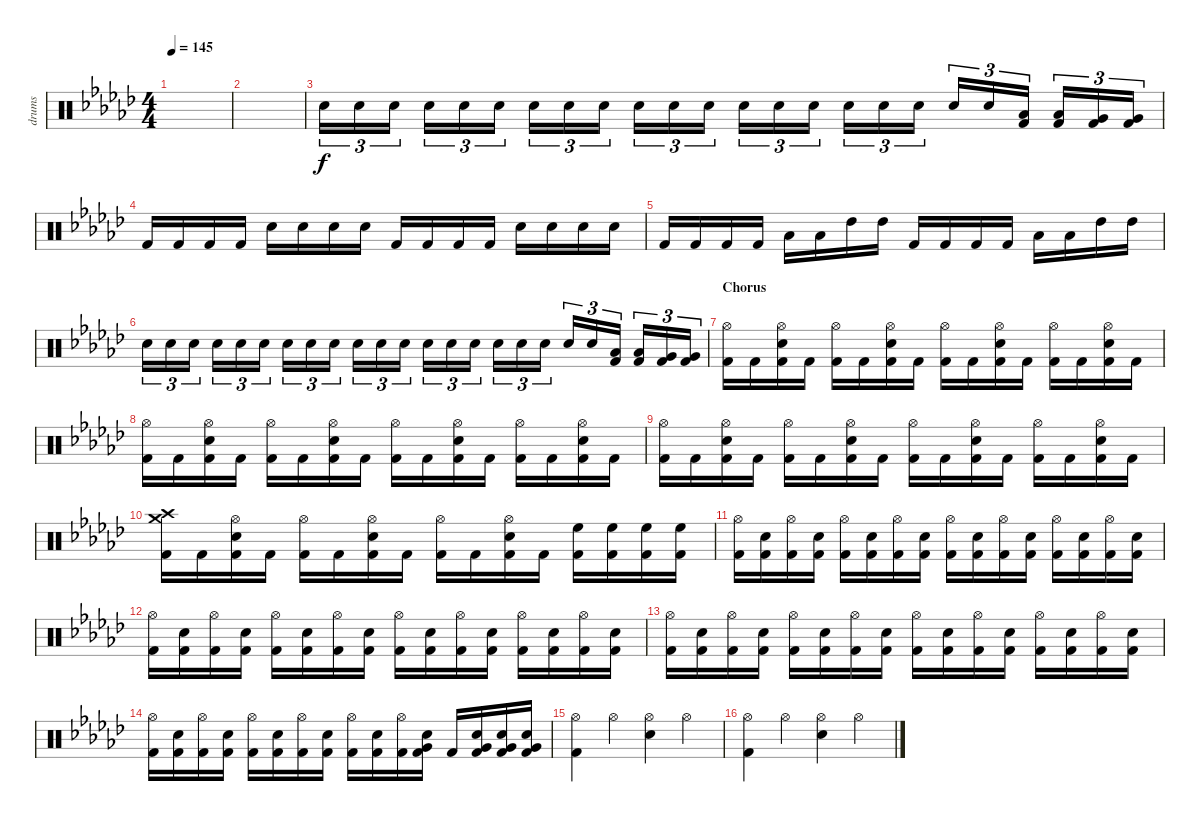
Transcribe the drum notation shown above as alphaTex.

\track ("drums" "drums") {instrument percussion}
\staff {score}
\articulation defaults
\ts (4 4)
\tempo 145
\clef neutral
\ks gb
|
|
"Snare (hit) 2".16{tu (3 2) volume 4} "Snare (hit) 2".16{tu (3 2)} "Snare (hit) 2".16{tu (3 2) volume 6} "Snare (hit) 2".16{tu (3 2)} "Snare (hit) 2".16{tu (3 2) volume 8} "Snare (hit) 2".16{tu (3 2)} "Snare (hit) 2".16{tu (3 2) volume 9} "Snare (hit) 2".16{tu (3 2)} "Snare (hit) 2".16{tu (3 2) volume 10} "Snare (hit) 2".16{tu (3 2)} "Snare (hit) 2".16{tu (3 2) volume 11} "Snare (hit) 2".16{tu (3 2)} "Snare (hit) 2".16{tu (3 2) volume 12} "Snare (hit) 2".16{tu (3 2)} "Snare (hit) 2".16{tu (3 2) volume 13} "Snare (hit) 2".16{tu (3 2)} "Snare (hit) 2".16{tu (3 2) volume 14} "Snare (hit) 2".16{tu (3 2)} "Snare (hit) 2".16{tu (3 2) volume 15} "Snare (hit) 2".16{tu (3 2)} ("Low Tom (hit)" "Kick (hit) 2").16{tu (3 2)} ("Low Tom (hit)" "Kick (hit) 2").16{tu (3 2)} ("Very Low Tom (hit)" "Kick (hit) 2").16{tu (3 2)} ("Very Low Tom (hit)" "Kick (hit) 2").16{tu (3 2)} |
"Kick (hit) 2".16 "Kick (hit) 2".16 "Kick (hit) 2".16 "Kick (hit) 2".16 "Snare (hit) 2".16 "Snare (hit) 2".16 "Snare (hit) 2".16 "Snare (hit) 2".16 "Kick (hit) 2".16 "Kick (hit) 2".16 "Kick (hit) 2".16 "Kick (hit) 2".16 "Snare (hit) 2".16 "Snare (hit) 2".16 "Snare (hit) 2".16 "Snare (hit) 2".16 |
"Kick (hit) 2".16 "Kick (hit) 2".16 "Kick (hit) 2".16 "Kick (hit) 2".16 "Low Tom (hit)".16 "Low Tom (hit)".16 "High Tom (hit)".16 "High Tom (hit)".16 "Kick (hit) 2".16 "Kick (hit) 2".16 "Kick (hit) 2".16 "Kick (hit) 2".16 "Low Tom (hit)".16 "Low Tom (hit)".16 "High Tom (hit)".16 "High Tom (hit)".16 |
"Snare (hit) 2".16{tu (3 2) volume 4} "Snare (hit) 2".16{tu (3 2)} "Snare (hit) 2".16{tu (3 2) volume 6} "Snare (hit) 2".16{tu (3 2)} "Snare (hit) 2".16{tu (3 2) volume 8} "Snare (hit) 2".16{tu (3 2)} "Snare (hit) 2".16{tu (3 2) volume 9} "Snare (hit) 2".16{tu (3 2)} "Snare (hit) 2".16{tu (3 2) volume 10} "Snare (hit) 2".16{tu (3 2)} "Snare (hit) 2".16{tu (3 2) volume 11} "Snare (hit) 2".16{tu (3 2)} "Snare (hit) 2".16{tu (3 2) volume 12} "Snare (hit) 2".16{tu (3 2)} "Snare (hit) 2".16{tu (3 2) volume 13} "Snare (hit) 2".16{tu (3 2)} "Snare (hit) 2".16{tu (3 2) volume 14} "Snare (hit) 2".16{tu (3 2)} "Snare (hit) 2".16{tu (3 2) volume 15} "Snare (hit) 2".16{tu (3 2)} ("Low Tom (hit)" "Kick (hit) 2").16{tu (3 2)} ("Low Tom (hit)" "Kick (hit) 2").16{tu (3 2)} ("Very Low Tom (hit)" "Kick (hit) 2").16{tu (3 2)} ("Very Low Tom (hit)" "Kick (hit) 2").16{tu (3 2)} |
\section ("" "Chorus")
("Hi-Hat (open)" "Kick (hit) 2").16 "Kick (hit) 2".16 ("Hi-Hat (open)" "Electric Snare (hit)" "Kick (hit) 2").16 "Kick (hit) 2".16 ("Hi-Hat (open)" "Kick (hit) 2").16 "Kick (hit) 2".16 ("Hi-Hat (open)" "Electric Snare (hit)" "Kick (hit) 2").16 "Kick (hit) 2".16 ("Hi-Hat (open)" "Kick (hit) 2").16 "Kick (hit) 2".16 ("Hi-Hat (open)" "Electric Snare (hit)" "Kick (hit) 2").16 "Kick (hit) 2".16 ("Hi-Hat (open)" "Kick (hit) 2").16 "Kick (hit) 2".16 ("Hi-Hat (open)" "Electric Snare (hit)" "Kick (hit) 2").16 "Kick (hit) 2".16 |
("Hi-Hat (open)" "Kick (hit) 2").16 "Kick (hit) 2".16 ("Hi-Hat (open)" "Electric Snare (hit)" "Kick (hit) 2").16 "Kick (hit) 2".16 ("Hi-Hat (open)" "Kick (hit) 2").16 "Kick (hit) 2".16 ("Hi-Hat (open)" "Electric Snare (hit)" "Kick (hit) 2").16 "Kick (hit) 2".16 ("Hi-Hat (open)" "Kick (hit) 2").16 "Kick (hit) 2".16 ("Hi-Hat (open)" "Electric Snare (hit)" "Kick (hit) 2").16 "Kick (hit) 2".16 ("Hi-Hat (open)" "Kick (hit) 2").16 "Kick (hit) 2".16 ("Hi-Hat (open)" "Electric Snare (hit)" "Kick (hit) 2").16 "Kick (hit) 2".16 |
("Hi-Hat (open)" "Kick (hit) 2").16 "Kick (hit) 2".16 ("Hi-Hat (open)" "Electric Snare (hit)" "Kick (hit) 2").16 "Kick (hit) 2".16 ("Hi-Hat (open)" "Kick (hit) 2").16 "Kick (hit) 2".16 ("Hi-Hat (open)" "Electric Snare (hit)" "Kick (hit) 2").16 "Kick (hit) 2".16 ("Hi-Hat (open)" "Kick (hit) 2").16 "Kick (hit) 2".16 ("Hi-Hat (open)" "Electric Snare (hit)" "Kick (hit) 2").16 "Kick (hit) 2".16 ("Hi-Hat (open)" "Kick (hit) 2").16 "Kick (hit) 2".16 ("Hi-Hat (open)" "Electric Snare (hit)" "Kick (hit) 2").16 "Kick (hit) 2".16 |
("Crash high (hit)" "Crash medium (hit)" "Kick (hit) 2").16 "Kick (hit) 2".16 ("Hi-Hat (open)" "Electric Snare (hit)" "Kick (hit) 2").16 "Kick (hit) 2".16 ("Hi-Hat (open)" "Kick (hit) 2").16 "Kick (hit) 2".16 ("Hi-Hat (open)" "Electric Snare (hit)" "Kick (hit) 2").16 "Kick (hit) 2".16 ("Hi-Hat (open)" "Kick (hit) 2").16 "Kick (hit) 2".16 ("Hi-Hat (open)" "Electric Snare (hit)" "Kick (hit) 2").16 "Kick (hit) 2".16 ("High Floor Tom (hit)" "Kick (hit) 2").16 ("High Floor Tom (hit)" "Kick (hit) 2").16 ("High Floor Tom (hit)" "Kick (hit) 2").16 ("High Floor Tom (hit)" "Kick (hit) 2").16 |
("Hi-Hat (open)" "Kick (hit) 2").16 ("Electric Snare (hit)" "Kick (hit) 2").16 ("Hi-Hat (open)" "Kick (hit) 2").16 ("Electric Snare (hit)" "Kick (hit) 2").16 ("Hi-Hat (open)" "Kick (hit) 2").16 ("Electric Snare (hit)" "Kick (hit) 2").16 ("Hi-Hat (open)" "Kick (hit) 2").16 ("Electric Snare (hit)" "Kick (hit) 2").16 ("Hi-Hat (open)" "Kick (hit) 2").16 ("Electric Snare (hit)" "Kick (hit) 2").16 ("Hi-Hat (open)" "Kick (hit) 2").16 ("Electric Snare (hit)" "Kick (hit) 2").16 ("Hi-Hat (open)" "Kick (hit) 2").16 ("Electric Snare (hit)" "Kick (hit) 2").16 ("Hi-Hat (open)" "Kick (hit) 2").16 ("Electric Snare (hit)" "Kick (hit) 2").16 |
("Hi-Hat (open)" "Kick (hit) 2").16 ("Electric Snare (hit)" "Kick (hit) 2").16 ("Hi-Hat (open)" "Kick (hit) 2").16 ("Electric Snare (hit)" "Kick (hit) 2").16 ("Hi-Hat (open)" "Kick (hit) 2").16 ("Electric Snare (hit)" "Kick (hit) 2").16 ("Hi-Hat (open)" "Kick (hit) 2").16 ("Electric Snare (hit)" "Kick (hit) 2").16 ("Hi-Hat (open)" "Kick (hit) 2").16 ("Electric Snare (hit)" "Kick (hit) 2").16 ("Hi-Hat (open)" "Kick (hit) 2").16 ("Electric Snare (hit)" "Kick (hit) 2").16 ("Hi-Hat (open)" "Kick (hit) 2").16 ("Electric Snare (hit)" "Kick (hit) 2").16 ("Hi-Hat (open)" "Kick (hit) 2").16 ("Electric Snare (hit)" "Kick (hit) 2").16 |
("Hi-Hat (open)" "Kick (hit) 2").16 ("Electric Snare (hit)" "Kick (hit) 2").16 ("Hi-Hat (open)" "Kick (hit) 2").16 ("Electric Snare (hit)" "Kick (hit) 2").16 ("Hi-Hat (open)" "Kick (hit) 2").16 ("Electric Snare (hit)" "Kick (hit) 2").16 ("Hi-Hat (open)" "Kick (hit) 2").16 ("Electric Snare (hit)" "Kick (hit) 2").16 ("Hi-Hat (open)" "Kick (hit) 2").16 ("Electric Snare (hit)" "Kick (hit) 2").16 ("Hi-Hat (open)" "Kick (hit) 2").16 ("Electric Snare (hit)" "Kick (hit) 2").16 ("Hi-Hat (open)" "Kick (hit) 2").16 ("Electric Snare (hit)" "Kick (hit) 2").16 ("Hi-Hat (open)" "Kick (hit) 2").16 ("Electric Snare (hit)" "Kick (hit) 2").16 |
("Hi-Hat (open)" "Kick (hit) 2").16 ("Electric Snare (hit)" "Kick (hit) 2").16 ("Hi-Hat (open)" "Kick (hit) 2").16 ("Electric Snare (hit)" "Kick (hit) 2").16 ("Hi-Hat (open)" "Kick (hit) 2").16 ("Electric Snare (hit)" "Kick (hit) 2").16 ("Hi-Hat (open)" "Kick (hit) 2").16 ("Electric Snare (hit)" "Kick (hit) 2").16 ("Hi-Hat (open)" "Kick (hit) 2").16 ("Electric Snare (hit)" "Kick (hit) 2").16 ("Hi-Hat (open)" "Kick (hit) 2").16 ("Electric Snare (hit)" "Very Low Tom (hit)" "Kick (hit) 2").16 "Kick (hit) 2".16 ("Electric Snare (hit)" "Very Low Tom (hit)" "Kick (hit) 2").16 ("Electric Snare (hit)" "Very Low Tom (hit)" "Kick (hit) 2").16 ("Electric Snare (hit)" "Very Low Tom (hit)" "Kick (hit) 2").16 |
("Hi-Hat (open)" "Kick (hit) 2").4 "Hi-Hat (open)".4 ("Hi-Hat (open)" "Electric Snare (hit)").4 "Hi-Hat (open)".4 |
("Hi-Hat (open)" "Kick (hit) 2").4 "Hi-Hat (open)".4 ("Hi-Hat (open)" "Electric Snare (hit)").4 "Hi-Hat (open)".4
